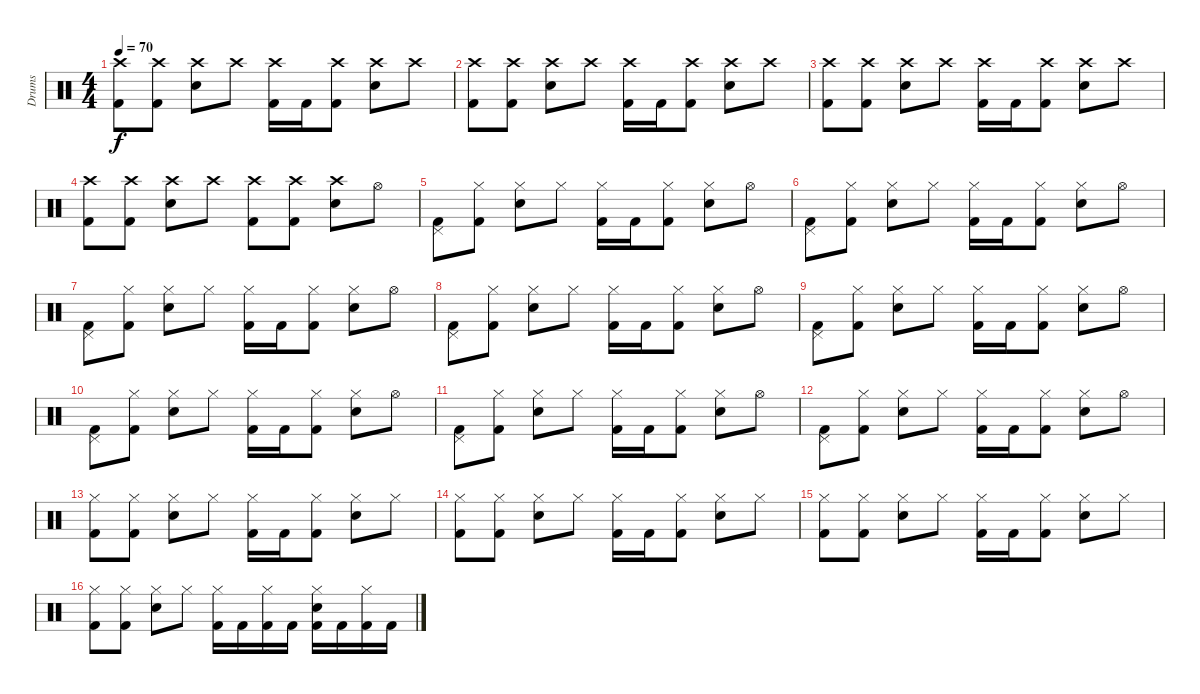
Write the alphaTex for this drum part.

\track ("Drums" "Drums") {instrument percussion}
\staff {score}
\articulation defaults
\ts (4 4)
\tempo 70
\clef neutral
\ks c
("Crash high (hit)" "Kick (hit) 2").8{dy f volume 15} ("Crash high (hit)" "Kick (hit) 2").8 ("Crash high (hit)" "Electric Snare (hit)").8 "Crash high (hit)".8 ("Crash high (hit)" "Kick (hit) 2").16 "Kick (hit) 2".16 ("Crash high (hit)" "Kick (hit) 2").8 ("Crash high (hit)" "Electric Snare (hit)").8 "Crash high (hit)".8 |
("Crash high (hit)" "Kick (hit) 2").8 ("Crash high (hit)" "Kick (hit) 2").8 ("Crash high (hit)" "Electric Snare (hit)").8 "Crash high (hit)".8 ("Crash high (hit)" "Kick (hit) 2").16 "Kick (hit) 2".16 ("Crash high (hit)" "Kick (hit) 2").8 ("Crash high (hit)" "Electric Snare (hit)").8 "Crash high (hit)".8 |
("Crash high (hit)" "Kick (hit) 2").8 ("Crash high (hit)" "Kick (hit) 2").8 ("Crash high (hit)" "Electric Snare (hit)").8 "Crash high (hit)".8 ("Crash high (hit)" "Kick (hit) 2").16 "Kick (hit) 2".16 ("Crash high (hit)" "Kick (hit) 2").8 ("Crash high (hit)" "Electric Snare (hit)").8 "Crash high (hit)".8 |
("Crash high (hit)" "Kick (hit) 2").8 ("Crash high (hit)" "Kick (hit) 2").8 ("Crash high (hit)" "Electric Snare (hit)").8 "Crash high (hit)".8 ("Crash high (hit)" "Kick (hit) 2").8 ("Crash high (hit)" "Kick (hit) 2").8 ("Crash high (hit)" "Electric Snare (hit)").8 "Hi-Hat (open)".8 |
("Pedal Hi-Hat (hit)" "Kick (hit) 2").8 ("Hi-Hat (closed)" "Kick (hit) 2").8 ("Hi-Hat (closed)" "Electric Snare (hit)").8 "Hi-Hat (closed)".8 ("Hi-Hat (closed)" "Kick (hit) 2").16 "Kick (hit) 2".16 ("Hi-Hat (closed)" "Kick (hit) 2").8 ("Hi-Hat (closed)" "Electric Snare (hit)").8 "Hi-Hat (open)".8 |
("Pedal Hi-Hat (hit)" "Kick (hit) 2").8 ("Hi-Hat (closed)" "Kick (hit) 2").8 ("Hi-Hat (closed)" "Electric Snare (hit)").8 "Hi-Hat (closed)".8 ("Hi-Hat (closed)" "Kick (hit) 2").16 "Kick (hit) 2".16 ("Hi-Hat (closed)" "Kick (hit) 2").8 ("Hi-Hat (closed)" "Electric Snare (hit)").8 "Hi-Hat (open)".8 |
("Pedal Hi-Hat (hit)" "Kick (hit) 2").8 ("Hi-Hat (closed)" "Kick (hit) 2").8 ("Hi-Hat (closed)" "Electric Snare (hit)").8 "Hi-Hat (closed)".8 ("Hi-Hat (closed)" "Kick (hit) 2").16 "Kick (hit) 2".16 ("Hi-Hat (closed)" "Kick (hit) 2").8 ("Hi-Hat (closed)" "Electric Snare (hit)").8 "Hi-Hat (open)".8 |
("Pedal Hi-Hat (hit)" "Kick (hit) 2").8 ("Hi-Hat (closed)" "Kick (hit) 2").8 ("Hi-Hat (closed)" "Electric Snare (hit)").8 "Hi-Hat (closed)".8 ("Hi-Hat (closed)" "Kick (hit) 2").16 "Kick (hit) 2".16 ("Hi-Hat (closed)" "Kick (hit) 2").8 ("Hi-Hat (closed)" "Electric Snare (hit)").8 "Hi-Hat (open)".8 |
("Pedal Hi-Hat (hit)" "Kick (hit) 2").8 ("Hi-Hat (closed)" "Kick (hit) 2").8 ("Hi-Hat (closed)" "Electric Snare (hit)").8 "Hi-Hat (closed)".8 ("Hi-Hat (closed)" "Kick (hit) 2").16 "Kick (hit) 2".16 ("Hi-Hat (closed)" "Kick (hit) 2").8 ("Hi-Hat (closed)" "Electric Snare (hit)").8 "Hi-Hat (open)".8 |
("Pedal Hi-Hat (hit)" "Kick (hit) 2").8 ("Hi-Hat (closed)" "Kick (hit) 2").8 ("Hi-Hat (closed)" "Electric Snare (hit)").8 "Hi-Hat (closed)".8 ("Hi-Hat (closed)" "Kick (hit) 2").16 "Kick (hit) 2".16 ("Hi-Hat (closed)" "Kick (hit) 2").8 ("Hi-Hat (closed)" "Electric Snare (hit)").8 "Hi-Hat (open)".8 |
("Pedal Hi-Hat (hit)" "Kick (hit) 2").8 ("Hi-Hat (closed)" "Kick (hit) 2").8 ("Hi-Hat (closed)" "Electric Snare (hit)").8 "Hi-Hat (closed)".8 ("Hi-Hat (closed)" "Kick (hit) 2").16 "Kick (hit) 2".16 ("Hi-Hat (closed)" "Kick (hit) 2").8 ("Hi-Hat (closed)" "Electric Snare (hit)").8 "Hi-Hat (open)".8 |
("Pedal Hi-Hat (hit)" "Kick (hit) 2").8 ("Hi-Hat (closed)" "Kick (hit) 2").8 ("Hi-Hat (closed)" "Electric Snare (hit)").8 "Hi-Hat (closed)".8 ("Hi-Hat (closed)" "Kick (hit) 2").16 "Kick (hit) 2".16 ("Hi-Hat (closed)" "Kick (hit) 2").8 ("Hi-Hat (closed)" "Electric Snare (hit)").8 "Hi-Hat (open)".8 |
("Hi-Hat (closed)" "Kick (hit) 2").8 ("Hi-Hat (closed)" "Kick (hit) 2").8 ("Hi-Hat (closed)" "Snare (hit) 2").8 "Hi-Hat (closed)".8 ("Hi-Hat (closed)" "Kick (hit) 2").16 "Kick (hit) 2".16 ("Hi-Hat (closed)" "Kick (hit) 2").8 ("Hi-Hat (closed)" "Snare (hit) 2").8 "Hi-Hat (closed)".8 |
("Hi-Hat (closed)" "Kick (hit) 2").8 ("Hi-Hat (closed)" "Kick (hit) 2").8 ("Hi-Hat (closed)" "Snare (hit) 2").8 "Hi-Hat (closed)".8 ("Hi-Hat (closed)" "Kick (hit) 2").16 "Kick (hit) 2".16 ("Hi-Hat (closed)" "Kick (hit) 2").8 ("Hi-Hat (closed)" "Snare (hit) 2").8 "Hi-Hat (closed)".8 |
("Hi-Hat (closed)" "Kick (hit) 2").8 ("Hi-Hat (closed)" "Kick (hit) 2").8 ("Hi-Hat (closed)" "Snare (hit) 2").8 "Hi-Hat (closed)".8 ("Hi-Hat (closed)" "Kick (hit) 2").16 "Kick (hit) 2".16 ("Hi-Hat (closed)" "Kick (hit) 2").8 ("Hi-Hat (closed)" "Snare (hit) 2").8 "Hi-Hat (closed)".8 |
("Hi-Hat (closed)" "Kick (hit) 2").8 ("Hi-Hat (closed)" "Kick (hit) 2").8 ("Hi-Hat (closed)" "Snare (hit) 2").8 "Hi-Hat (closed)".8 ("Hi-Hat (closed)" "Kick (hit) 2").16 "Kick (hit) 2".16 ("Hi-Hat (closed)" "Kick (hit) 2").16 "Kick (hit) 2".16 ("Hi-Hat (closed)" "Snare (hit) 2" "Kick (hit) 2").16 "Kick (hit) 2".16 ("Hi-Hat (closed)" "Kick (hit) 2").16 "Kick (hit) 2".16
